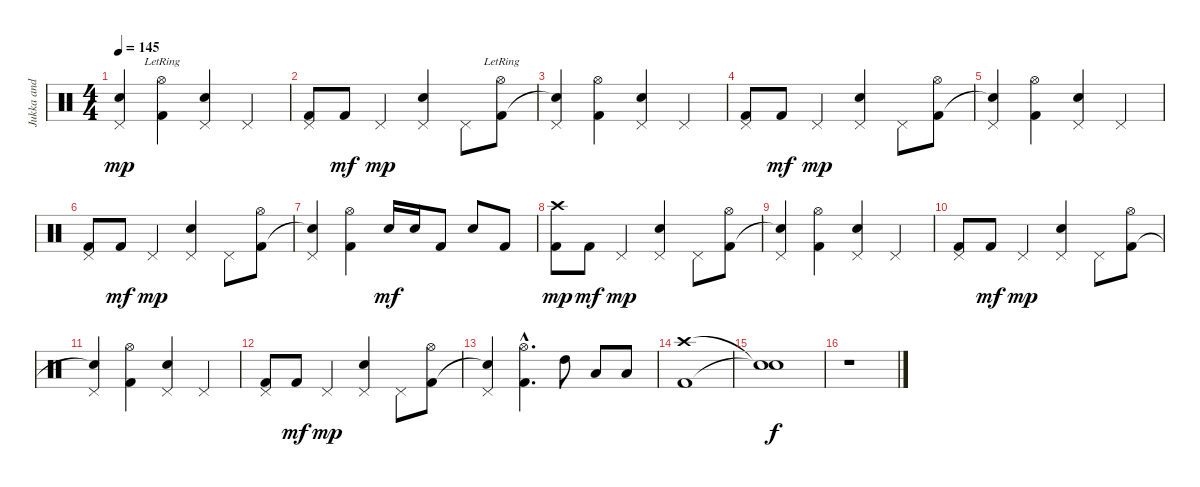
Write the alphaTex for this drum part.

\track ("Jukka and his drums" "Jukka and ") {instrument percussion}
\staff {score}
\articulation defaults
\ts (4 4)
\tempo 145
\clef neutral
\ks c
("Snare (hit)"{t} "Pedal Hi-Hat (hit)").4{dy mp} ("Kick (hit) 2" "Hi-Hat (open)"{lr}).4 ("Pedal Hi-Hat (hit)" "Snare (hit) 2").4 "Pedal Hi-Hat (hit)".4 |
("Kick (hit) 2" "Pedal Hi-Hat (hit)").8 "Kick (hit) 2".8{dy mf} "Pedal Hi-Hat (hit)".4{dy mp} ("Pedal Hi-Hat (hit)" "Snare (hit) 2").4 "Pedal Hi-Hat (hit)".8 ("Kick (hit) 2" "Hi-Hat (open)"{lr}).8 |
("Snare (hit)"{t} "Pedal Hi-Hat (hit)").4 ("Kick (hit) 2" "Hi-Hat (open)").4 ("Pedal Hi-Hat (hit)" "Snare (hit) 2").4 "Pedal Hi-Hat (hit)".4 |
("Kick (hit) 2" "Pedal Hi-Hat (hit)").8 "Kick (hit) 2".8{dy mf} "Pedal Hi-Hat (hit)".4{dy mp} ("Pedal Hi-Hat (hit)" "Snare (hit) 2").4 "Pedal Hi-Hat (hit)".8 ("Kick (hit) 2" "Hi-Hat (open)").8 |
("Snare (hit)"{t} "Pedal Hi-Hat (hit)").4 ("Kick (hit) 2" "Hi-Hat (open)").4 ("Pedal Hi-Hat (hit)" "Snare (hit) 2").4 "Pedal Hi-Hat (hit)".4 |
("Kick (hit) 2" "Pedal Hi-Hat (hit)").8 "Kick (hit) 2".8{dy mf} "Pedal Hi-Hat (hit)".4{dy mp} ("Pedal Hi-Hat (hit)" "Snare (hit) 2").4 "Pedal Hi-Hat (hit)".8 ("Kick (hit) 2" "Hi-Hat (open)").8 |
("Snare (hit)"{t} "Pedal Hi-Hat (hit)").4 ("Kick (hit) 2" "Hi-Hat (open)").4 "Snare (hit) 2".16{dy mf} "Snare (hit) 2".16 "Kick (hit) 2".8 "Snare (hit) 2".8 "Kick (hit) 2".8 |
("Kick (hit) 2" "Crash high (hit)").8{dy mp} "Kick (hit) 2".8{dy mf} "Pedal Hi-Hat (hit)".4{dy mp} ("Pedal Hi-Hat (hit)" "Snare (hit) 2").4 "Pedal Hi-Hat (hit)".8 ("Kick (hit) 2" "Hi-Hat (open)").8 |
("Snare (hit)"{t} "Pedal Hi-Hat (hit)").4 ("Kick (hit) 2" "Hi-Hat (open)").4 ("Pedal Hi-Hat (hit)" "Snare (hit) 2").4 "Pedal Hi-Hat (hit)".4 |
("Kick (hit) 2" "Pedal Hi-Hat (hit)").8 "Kick (hit) 2".8{dy mf} "Pedal Hi-Hat (hit)".4{dy mp} ("Pedal Hi-Hat (hit)" "Snare (hit) 2").4 "Pedal Hi-Hat (hit)".8 ("Kick (hit) 2" "Hi-Hat (open)").8 |
("Snare (hit)"{t} "Pedal Hi-Hat (hit)").4 ("Kick (hit) 2" "Hi-Hat (open)").4 ("Pedal Hi-Hat (hit)" "Snare (hit) 2").4 "Pedal Hi-Hat (hit)".4 |
("Kick (hit) 2" "Pedal Hi-Hat (hit)").8 "Kick (hit) 2".8{dy mf} "Pedal Hi-Hat (hit)".4{dy mp} ("Pedal Hi-Hat (hit)" "Snare (hit) 2").4 "Pedal Hi-Hat (hit)".8 ("Kick (hit) 2" "Hi-Hat (open)").8 |
("Snare (hit)"{t} "Pedal Hi-Hat (hit)").4 ("Kick (hit) 2"{hac} "Hi-Hat (open)"{hac}).4{d} "High Tom (hit)".8 "Low Tom (hit)".8 "Low Floor Tom (hit)".8 |
("Kick (hit) 2" "Crash high (hit)").1 |
("Snare (hit)"{t} "Snare (hit)"{t}).1{dy f} |
r.1
